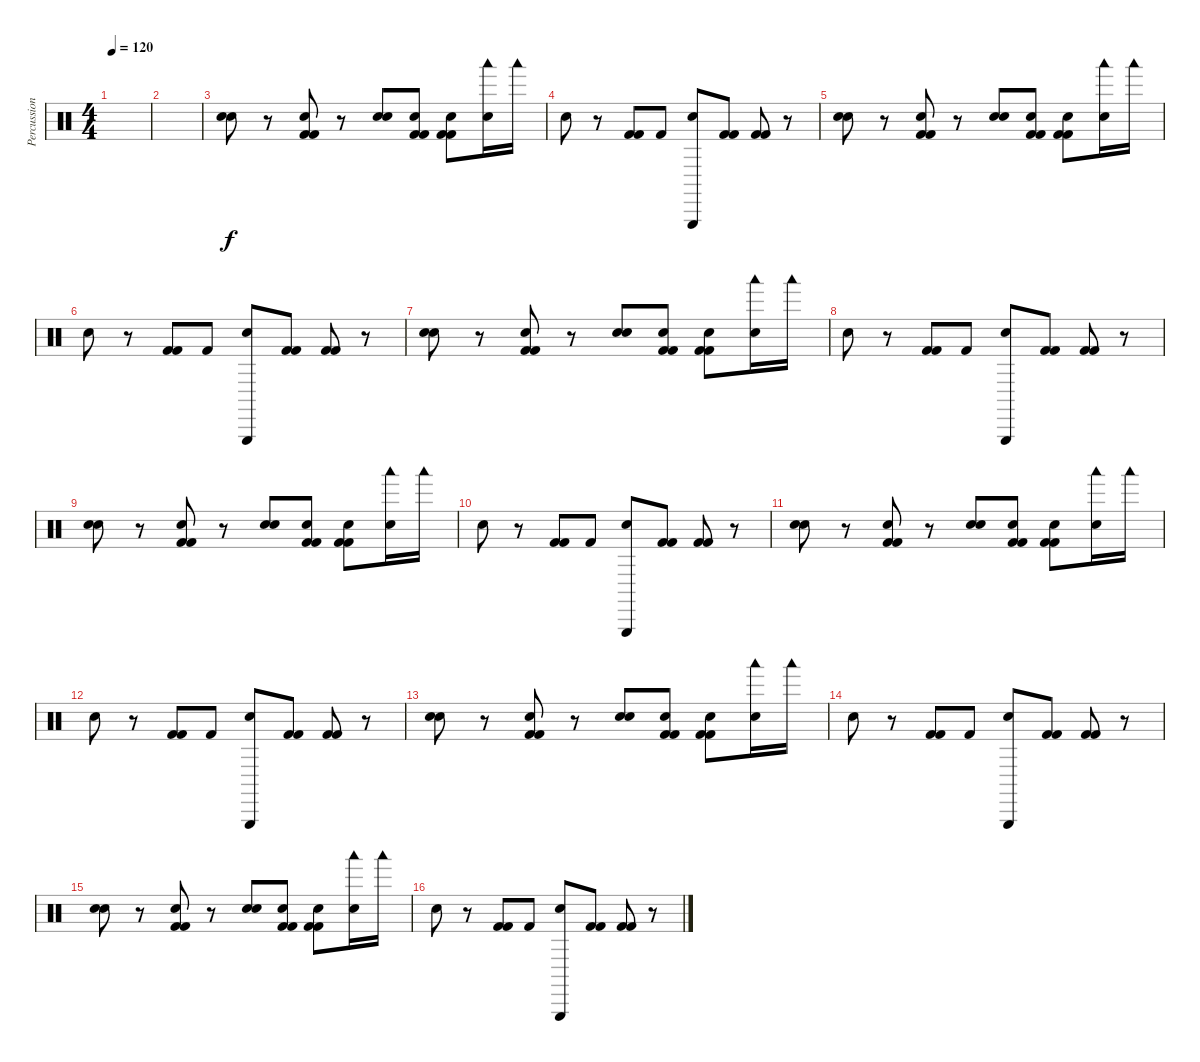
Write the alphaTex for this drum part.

\track ("Percussions" "Percussion") {instrument percussion}
\staff {score}
\articulation defaults
\ts (4 4)
\tempo 120
\clef neutral
\ks c
|
|
("Snare (hit) 2" "Metronome (bell)").8 r.8 ("Kick (hit) 2" "Metronome (bell)" "Kick (hit) 2").8 r.8 ("Snare (hit) 2" "Metronome (bell)").8 ("Kick (hit) 2" "Kick (hit) 2" "Metronome (bell)").8 ("Kick (hit) 2" "Kick (hit) 2" "Metronome (bell)").8 ("Woodblock low (hit)" "Metronome (bell)").16 "Woodblock low (hit)".16 |
"Snare (hit) 2".8 r.8 ("Kick (hit) 2" "Kick (hit) 2").8 "Kick (hit) 2".8 ("Snare (hit) 2" "Triangle (hit)").8 ("Kick (hit) 2" "Kick (hit) 2").8 ("Kick (hit) 2" "Kick (hit) 2").8 r.8 |
("Snare (hit) 2" "Metronome (bell)").8 r.8 ("Kick (hit) 2" "Metronome (bell)" "Kick (hit) 2").8 r.8 ("Snare (hit) 2" "Metronome (bell)").8 ("Kick (hit) 2" "Kick (hit) 2" "Metronome (bell)").8 ("Kick (hit) 2" "Kick (hit) 2" "Metronome (bell)").8 ("Woodblock low (hit)" "Metronome (bell)").16 "Woodblock low (hit)".16 |
"Snare (hit) 2".8 r.8 ("Kick (hit) 2" "Kick (hit) 2").8 "Kick (hit) 2".8 ("Snare (hit) 2" "Triangle (hit)").8 ("Kick (hit) 2" "Kick (hit) 2").8 ("Kick (hit) 2" "Kick (hit) 2").8 r.8 |
("Snare (hit) 2" "Metronome (bell)").8 r.8 ("Kick (hit) 2" "Metronome (bell)" "Kick (hit) 2").8 r.8 ("Snare (hit) 2" "Metronome (bell)").8 ("Kick (hit) 2" "Kick (hit) 2" "Metronome (bell)").8 ("Kick (hit) 2" "Kick (hit) 2" "Metronome (bell)").8 ("Woodblock low (hit)" "Metronome (bell)").16 "Woodblock low (hit)".16 |
"Snare (hit) 2".8 r.8 ("Kick (hit) 2" "Kick (hit) 2").8 "Kick (hit) 2".8 ("Snare (hit) 2" "Triangle (hit)").8 ("Kick (hit) 2" "Kick (hit) 2").8 ("Kick (hit) 2" "Kick (hit) 2").8 r.8 |
("Snare (hit) 2" "Metronome (bell)").8 r.8 ("Kick (hit) 2" "Metronome (bell)" "Kick (hit) 2").8 r.8 ("Snare (hit) 2" "Metronome (bell)").8 ("Kick (hit) 2" "Kick (hit) 2" "Metronome (bell)").8 ("Kick (hit) 2" "Kick (hit) 2" "Metronome (bell)").8 ("Woodblock low (hit)" "Metronome (bell)").16 "Woodblock low (hit)".16 |
"Snare (hit) 2".8 r.8 ("Kick (hit) 2" "Kick (hit) 2").8 "Kick (hit) 2".8 ("Snare (hit) 2" "Triangle (hit)").8 ("Kick (hit) 2" "Kick (hit) 2").8 ("Kick (hit) 2" "Kick (hit) 2").8 r.8 |
("Snare (hit) 2" "Metronome (bell)").8 r.8 ("Kick (hit) 2" "Metronome (bell)" "Kick (hit) 2").8 r.8 ("Snare (hit) 2" "Metronome (bell)").8 ("Kick (hit) 2" "Kick (hit) 2" "Metronome (bell)").8 ("Kick (hit) 2" "Kick (hit) 2" "Metronome (bell)").8 ("Woodblock low (hit)" "Metronome (bell)").16 "Woodblock low (hit)".16 |
"Snare (hit) 2".8 r.8 ("Kick (hit) 2" "Kick (hit) 2").8 "Kick (hit) 2".8 ("Snare (hit) 2" "Triangle (hit)").8 ("Kick (hit) 2" "Kick (hit) 2").8 ("Kick (hit) 2" "Kick (hit) 2").8 r.8 |
("Snare (hit) 2" "Metronome (bell)").8 r.8 ("Kick (hit) 2" "Metronome (bell)" "Kick (hit) 2").8 r.8 ("Snare (hit) 2" "Metronome (bell)").8 ("Kick (hit) 2" "Kick (hit) 2" "Metronome (bell)").8 ("Kick (hit) 2" "Kick (hit) 2" "Metronome (bell)").8 ("Woodblock low (hit)" "Metronome (bell)").16 "Woodblock low (hit)".16 |
"Snare (hit) 2".8 r.8 ("Kick (hit) 2" "Kick (hit) 2").8 "Kick (hit) 2".8 ("Snare (hit) 2" "Triangle (hit)").8 ("Kick (hit) 2" "Kick (hit) 2").8 ("Kick (hit) 2" "Kick (hit) 2").8 r.8 |
("Snare (hit) 2" "Metronome (bell)").8 r.8 ("Kick (hit) 2" "Metronome (bell)" "Kick (hit) 2").8 r.8 ("Snare (hit) 2" "Metronome (bell)").8 ("Kick (hit) 2" "Kick (hit) 2" "Metronome (bell)").8 ("Kick (hit) 2" "Kick (hit) 2" "Metronome (bell)").8 ("Woodblock low (hit)" "Metronome (bell)").16 "Woodblock low (hit)".16 |
"Snare (hit) 2".8 r.8 ("Kick (hit) 2" "Kick (hit) 2").8 "Kick (hit) 2".8 ("Snare (hit) 2" "Triangle (hit)").8 ("Kick (hit) 2" "Kick (hit) 2").8 ("Kick (hit) 2" "Kick (hit) 2").8 r.8
